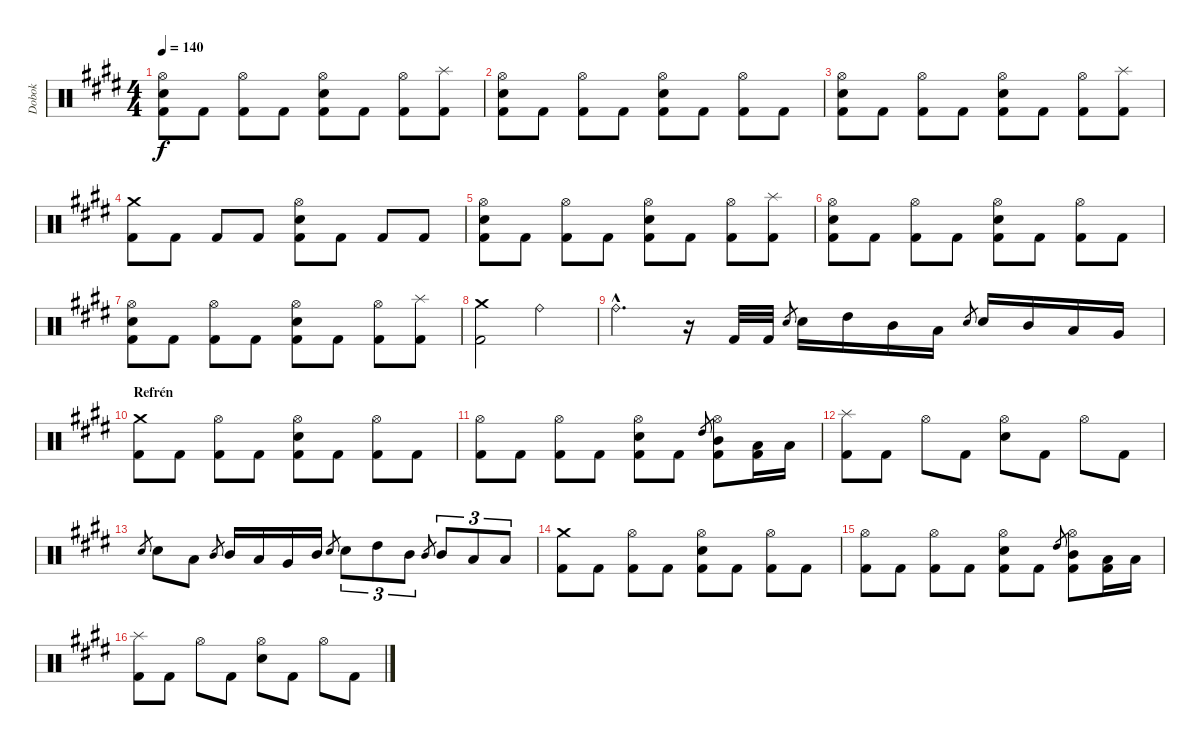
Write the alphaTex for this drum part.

\track ("Dobok" "Dobok") {instrument percussion}
\staff {score}
\articulation defaults
\ts (4 4)
\tempo 140
\clef neutral
\ks c#minor
("Hi-Hat (open)" "Snare (hit) 2" "Kick (hit) 2").8{dy f} "Kick (hit) 2".8 ("Hi-Hat (open)" "Kick (hit) 2").8 "Kick (hit) 2".8 ("Hi-Hat (open)" "Snare (hit) 2" "Kick (hit) 2").8 "Kick (hit) 2".8 ("Hi-Hat (open)" "Kick (hit) 2").8 ("Splash (hit)" "Kick (hit) 2").8 |
("Hi-Hat (open)" "Snare (hit) 2" "Kick (hit) 2").8 "Kick (hit) 2".8 ("Hi-Hat (open)" "Kick (hit) 2").8 "Kick (hit) 2".8 ("Hi-Hat (open)" "Snare (hit) 2" "Kick (hit) 2").8 "Kick (hit) 2".8 ("Hi-Hat (open)" "Kick (hit) 2").8 "Kick (hit) 2".8 |
("Hi-Hat (open)" "Snare (hit) 2" "Kick (hit) 2").8 "Kick (hit) 2".8 ("Hi-Hat (open)" "Kick (hit) 2").8 "Kick (hit) 2".8 ("Hi-Hat (open)" "Snare (hit) 2" "Kick (hit) 2").8 "Kick (hit) 2".8 ("Hi-Hat (open)" "Kick (hit) 2").8 ("Splash (hit)" "Kick (hit) 2").8 |
("Crash medium (hit)" "Kick (hit) 2").8 "Kick (hit) 2".8 "Kick (hit) 2".8 "Kick (hit) 2".8 ("Hi-Hat (open)" "Snare (hit) 2" "Kick (hit) 2").8 "Kick (hit) 2".8 "Kick (hit) 2".8 "Kick (hit) 2".8 |
("Hi-Hat (open)" "Snare (hit) 2" "Kick (hit) 2").8 "Kick (hit) 2".8 ("Hi-Hat (open)" "Kick (hit) 2").8 "Kick (hit) 2".8 ("Hi-Hat (open)" "Snare (hit) 2" "Kick (hit) 2").8 "Kick (hit) 2".8 ("Hi-Hat (open)" "Kick (hit) 2").8 ("Splash (hit)" "Kick (hit) 2").8 |
("Hi-Hat (open)" "Snare (hit) 2" "Kick (hit) 2").8 "Kick (hit) 2".8 ("Hi-Hat (open)" "Kick (hit) 2").8 "Kick (hit) 2".8 ("Hi-Hat (open)" "Snare (hit) 2" "Kick (hit) 2").8 "Kick (hit) 2".8 ("Hi-Hat (open)" "Kick (hit) 2").8 "Kick (hit) 2".8 |
("Hi-Hat (open)" "Snare (hit) 2" "Kick (hit) 2").8 "Kick (hit) 2".8 ("Hi-Hat (open)" "Kick (hit) 2").8 "Kick (hit) 2".8 ("Hi-Hat (open)" "Snare (hit) 2" "Kick (hit) 2").8 "Kick (hit) 2".8 ("Hi-Hat (open)" "Kick (hit) 2").8 ("Splash (hit)" "Kick (hit) 2").8 |
("Crash medium (hit)" "Kick (hit) 2").2 "Ride (bell)".2 |
"Ride (bell)"{hac}.4{d} r.16 "Kick (hit) 2".32 "Kick (hit) 2".32 "Snare (hit) 2".8{gr} "Snare (hit) 2".16 "High Tom (hit)".16 "Mid Tom (hit)".16 "Low Tom (hit)".16 "Snare (hit) 2".8{gr} "Snare (hit) 2".16 "Mid Tom (hit)".16 "Low Tom (hit)".16 "Very Low Tom (hit)".16 |
\section ("" "Refrén")
("Crash medium (hit)" "Kick (hit) 2").8 "Kick (hit) 2".8 ("Hi-Hat (open)" "Kick (hit) 2").8 "Kick (hit) 2".8 ("Hi-Hat (open)" "Snare (hit) 2" "Kick (hit) 2").8 "Kick (hit) 2".8 ("Hi-Hat (open)" "Kick (hit) 2").8 "Kick (hit) 2".8 |
("Hi-Hat (open)" "Kick (hit) 2").8 "Kick (hit) 2".8 ("Hi-Hat (open)" "Kick (hit) 2").8 "Kick (hit) 2".8 ("Hi-Hat (open)" "Snare (hit) 2" "Kick (hit) 2").8 "Kick (hit) 2".8 "High Tom (hit)".8{gr} ("Hi-Hat (open)" "Mid Tom (hit)" "Kick (hit) 2").8 ("Low Tom (hit)" "Kick (hit) 2").16 "Low Tom (hit)".16 |
("Splash (hit)" "Kick (hit) 2").8 "Kick (hit) 2".8 "Hi-Hat (open)".8 "Kick (hit) 2".8 ("Hi-Hat (open)" "Snare (hit) 2").8 "Kick (hit) 2".8 "Hi-Hat (open)".8 "Kick (hit) 2".8 |
"Snare (hit) 2".8{gr} "Snare (hit) 2".8 "Low Tom (hit)".8 "Mid Tom (hit)".8{gr} "Mid Tom (hit)".16 "Low Tom (hit)".16 "Very Low Tom (hit)".16 "Mid Tom (hit)".16 "Snare (hit) 2".8{gr} "Snare (hit) 2".8{tu (3 2)} "High Tom (hit)".8{tu (3 2)} "Mid Tom (hit)".8{tu (3 2)} "Mid Tom (hit)".8{gr} "Mid Tom (hit)".8{tu (3 2)} "Low Tom (hit)".8{tu (3 2)} "Low Tom (hit)".8{tu (3 2)} |
("Crash medium (hit)" "Kick (hit) 2").8 "Kick (hit) 2".8 ("Hi-Hat (open)" "Kick (hit) 2").8 "Kick (hit) 2".8 ("Hi-Hat (open)" "Snare (hit) 2" "Kick (hit) 2").8 "Kick (hit) 2".8 ("Hi-Hat (open)" "Kick (hit) 2").8 "Kick (hit) 2".8 |
("Hi-Hat (open)" "Kick (hit) 2").8 "Kick (hit) 2".8 ("Hi-Hat (open)" "Kick (hit) 2").8 "Kick (hit) 2".8 ("Hi-Hat (open)" "Snare (hit) 2" "Kick (hit) 2").8 "Kick (hit) 2".8 "High Tom (hit)".8{gr} ("Hi-Hat (open)" "Mid Tom (hit)" "Kick (hit) 2").8 ("Low Tom (hit)" "Kick (hit) 2").16 "Low Tom (hit)".16 |
("Splash (hit)" "Kick (hit) 2").8 "Kick (hit) 2".8 "Hi-Hat (open)".8 "Kick (hit) 2".8 ("Hi-Hat (open)" "Snare (hit) 2").8 "Kick (hit) 2".8 "Hi-Hat (open)".8 "Kick (hit) 2".8
